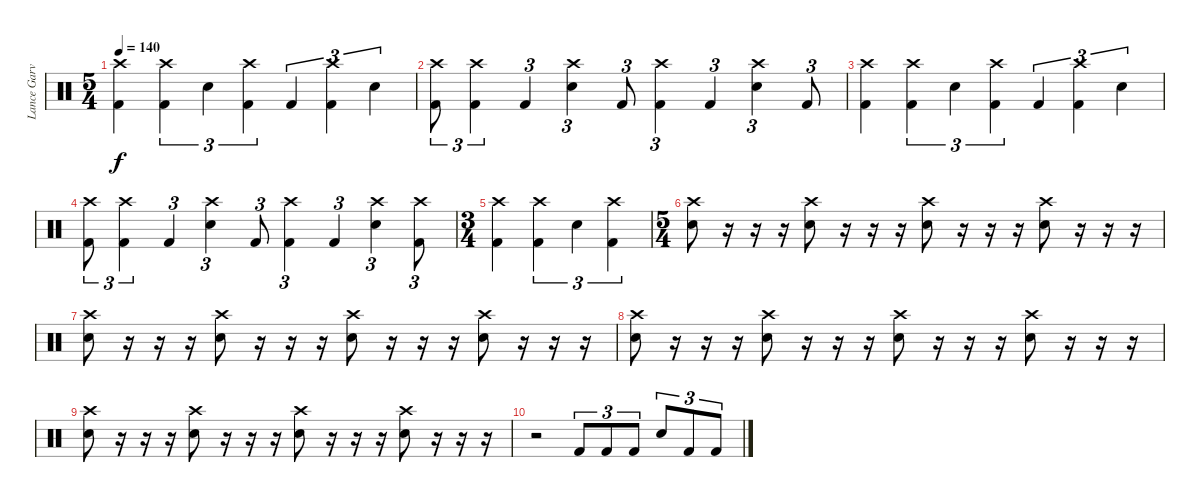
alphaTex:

\track ("Lance Garvin - Drums" "Lance Garv") {instrument percussion}
\staff {score}
\articulation defaults
\ts (5 4)
\tempo 140
\clef neutral
\ks c
("Crash high (hit)" "Kick (hit) 2").4{dy f} ("Crash high (hit)" "Kick (hit) 2").4{tu (3 2)} "Electric Snare (hit)".4{tu (3 2)} ("Crash high (hit)" "Kick (hit) 2").4{tu (3 2)} "Kick (hit) 2".4{tu (3 2)} ("Crash high (hit)" "Kick (hit) 2").4{tu (3 2)} "Electric Snare (hit)".4{tu (3 2)} |
("Crash high (hit)" "Kick (hit) 2").8{tu (3 2)} ("Crash high (hit)" "Kick (hit) 2").4{tu (3 2)} "Kick (hit) 2".4{tu (3 2)} ("Crash high (hit)" "Electric Snare (hit)").4{tu (3 2)} "Kick (hit) 2".8{tu (3 2)} ("Crash high (hit)" "Kick (hit) 2").4{tu (3 2)} "Kick (hit) 2".4{tu (3 2)} ("Crash high (hit)" "Electric Snare (hit)").4{tu (3 2)} "Kick (hit) 2".8{tu (3 2)} |
("Crash high (hit)" "Kick (hit) 2").4 ("Crash high (hit)" "Kick (hit) 2").4{tu (3 2)} "Electric Snare (hit)".4{tu (3 2)} ("Crash high (hit)" "Kick (hit) 2").4{tu (3 2)} "Kick (hit) 2".4{tu (3 2)} ("Crash high (hit)" "Kick (hit) 2").4{tu (3 2)} "Electric Snare (hit)".4{tu (3 2)} |
("Crash high (hit)" "Kick (hit) 2").8{tu (3 2)} ("Crash high (hit)" "Kick (hit) 2").4{tu (3 2)} "Kick (hit) 2".4{tu (3 2)} ("Crash high (hit)" "Electric Snare (hit)").4{tu (3 2)} "Kick (hit) 2".8{tu (3 2)} ("Crash high (hit)" "Kick (hit) 2").4{tu (3 2)} "Kick (hit) 2".4{tu (3 2)} ("Crash high (hit)" "Electric Snare (hit)").4{tu (3 2)} ("Crash high (hit)" "Kick (hit) 2").8{tu (3 2)} |
\ts (3 4)
("Crash high (hit)" "Kick (hit) 2").4 ("Crash high (hit)" "Kick (hit) 2").4{tu (3 2)} "Electric Snare (hit)".4{tu (3 2)} ("Crash high (hit)" "Kick (hit) 2").4{tu (3 2)} |
\ts (5 4)
("Crash high (hit)" "Electric Snare (hit)").8 r.16 r.16 r.16 ("Crash high (hit)" "Electric Snare (hit)").8 r.16 r.16 r.16 ("Crash high (hit)" "Electric Snare (hit)").8 r.16 r.16 r.16 ("Crash high (hit)" "Electric Snare (hit)").8 r.16 r.16 r.16 |
("Crash high (hit)" "Electric Snare (hit)").8 r.16 r.16 r.16 ("Crash high (hit)" "Electric Snare (hit)").8 r.16 r.16 r.16 ("Crash high (hit)" "Electric Snare (hit)").8 r.16 r.16 r.16 ("Crash high (hit)" "Electric Snare (hit)").8 r.16 r.16 r.16 |
("Crash high (hit)" "Electric Snare (hit)").8 r.16 r.16 r.16 ("Crash high (hit)" "Electric Snare (hit)").8 r.16 r.16 r.16 ("Crash high (hit)" "Electric Snare (hit)").8 r.16 r.16 r.16 ("Crash high (hit)" "Electric Snare (hit)").8 r.16 r.16 r.16 |
("Crash high (hit)" "Electric Snare (hit)").8 r.16 r.16 r.16 ("Crash high (hit)" "Electric Snare (hit)").8 r.16 r.16 r.16 ("Crash high (hit)" "Electric Snare (hit)").8 r.16 r.16 r.16 ("Crash high (hit)" "Electric Snare (hit)").8 r.16 r.16 r.16 |
r.2 "Kick (hit) 2".8{tu (3 2)} "Kick (hit) 2".8{tu (3 2)} "Kick (hit) 2".8{tu (3 2)} "Snare (hit) 2".8{tu (3 2)} "Kick (hit) 2".8{tu (3 2)} "Kick (hit) 2".8{tu (3 2)}
